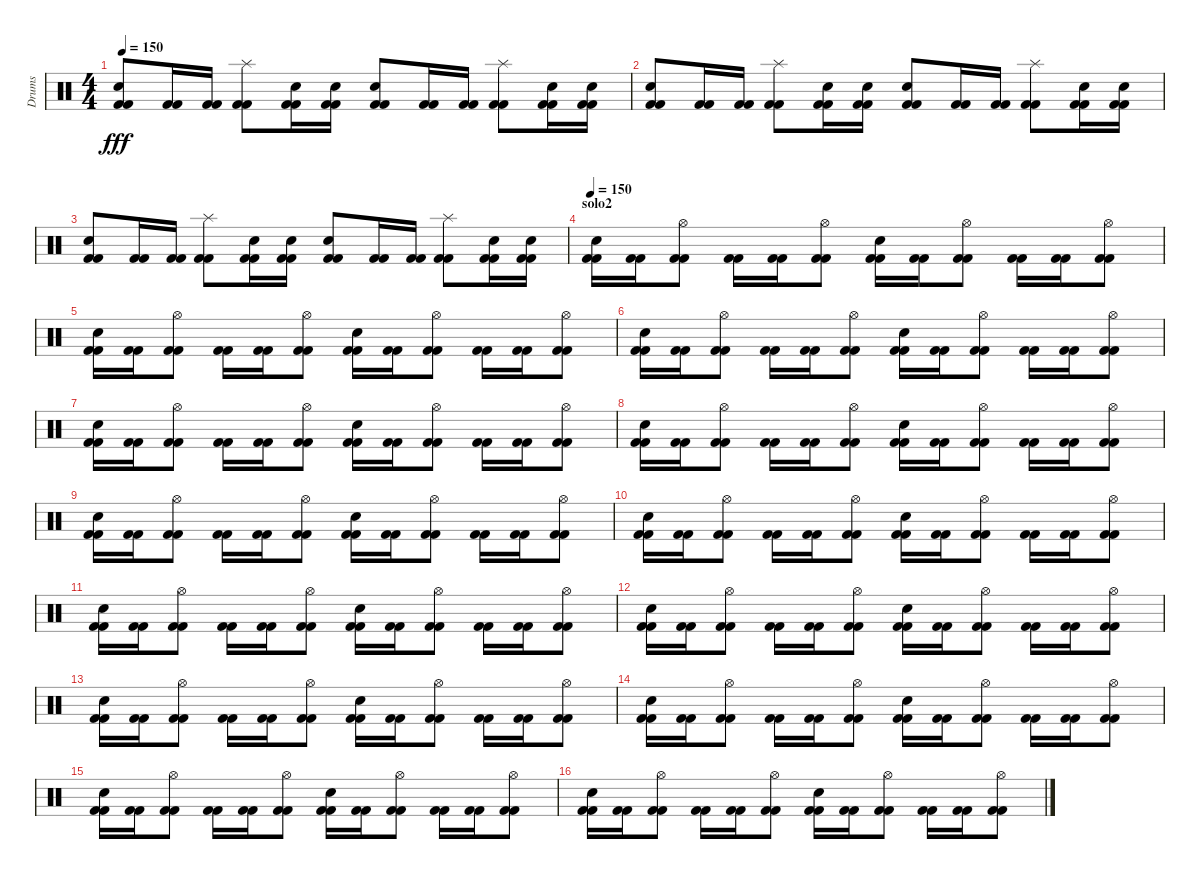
\track ("Drums" "Drums") {instrument percussion}
\staff {score}
\articulation defaults
\ts (4 4)
\tempo 150
\clef neutral
\ks c
("Electric Snare (hit)" "Kick (hit) 2" "Kick (hit) 2").8{dy fff} ("Kick (hit) 2" "Kick (hit) 2").16 ("Kick (hit) 2" "Kick (hit) 2").16 ("Splash (hit)" "Kick (hit) 2" "Kick (hit) 2").8 ("Electric Snare (hit)" "Kick (hit) 2" "Kick (hit) 2").16 ("Electric Snare (hit)" "Kick (hit) 2" "Kick (hit) 2").16 ("Electric Snare (hit)" "Kick (hit) 2" "Kick (hit) 2").8 ("Kick (hit) 2" "Kick (hit) 2").16 ("Kick (hit) 2" "Kick (hit) 2").16 ("Splash (hit)" "Kick (hit) 2" "Kick (hit) 2").8 ("Electric Snare (hit)" "Kick (hit) 2" "Kick (hit) 2").16 ("Electric Snare (hit)" "Kick (hit) 2" "Kick (hit) 2").16 |
("Electric Snare (hit)" "Kick (hit) 2" "Kick (hit) 2").8 ("Kick (hit) 2" "Kick (hit) 2").16 ("Kick (hit) 2" "Kick (hit) 2").16 ("Splash (hit)" "Kick (hit) 2" "Kick (hit) 2").8 ("Electric Snare (hit)" "Kick (hit) 2" "Kick (hit) 2").16 ("Electric Snare (hit)" "Kick (hit) 2" "Kick (hit) 2").16 ("Electric Snare (hit)" "Kick (hit) 2" "Kick (hit) 2").8 ("Kick (hit) 2" "Kick (hit) 2").16 ("Kick (hit) 2" "Kick (hit) 2").16 ("Splash (hit)" "Kick (hit) 2" "Kick (hit) 2").8 ("Electric Snare (hit)" "Kick (hit) 2" "Kick (hit) 2").16 ("Electric Snare (hit)" "Kick (hit) 2" "Kick (hit) 2").16 |
("Electric Snare (hit)" "Kick (hit) 2" "Kick (hit) 2").8 ("Kick (hit) 2" "Kick (hit) 2").16 ("Kick (hit) 2" "Kick (hit) 2").16 ("Splash (hit)" "Kick (hit) 2" "Kick (hit) 2").8 ("Electric Snare (hit)" "Kick (hit) 2" "Kick (hit) 2").16 ("Electric Snare (hit)" "Kick (hit) 2" "Kick (hit) 2").16 ("Electric Snare (hit)" "Kick (hit) 2" "Kick (hit) 2").8 ("Kick (hit) 2" "Kick (hit) 2").16 ("Kick (hit) 2" "Kick (hit) 2").16 ("Splash (hit)" "Kick (hit) 2" "Kick (hit) 2").8 ("Electric Snare (hit)" "Kick (hit) 2" "Kick (hit) 2").16 ("Electric Snare (hit)" "Kick (hit) 2" "Kick (hit) 2").16 |
\section ("" "solo2")
\tempo 150
("Electric Snare (hit)" "Kick (hit) 2" "Kick (hit) 2").16 ("Kick (hit) 2" "Kick (hit) 2").16 ("Hi-Hat (open)" "Kick (hit) 2" "Kick (hit) 2").8 ("Kick (hit) 2" "Kick (hit) 2").16 ("Kick (hit) 2" "Kick (hit) 2").16 ("Hi-Hat (open)" "Kick (hit) 2" "Kick (hit) 2").8 ("Electric Snare (hit)" "Kick (hit) 2" "Kick (hit) 2").16 ("Kick (hit) 2" "Kick (hit) 2").16 ("Hi-Hat (open)" "Kick (hit) 2" "Kick (hit) 2").8 ("Kick (hit) 2" "Kick (hit) 2").16 ("Kick (hit) 2" "Kick (hit) 2").16 ("Hi-Hat (open)" "Kick (hit) 2" "Kick (hit) 2").8 |
("Electric Snare (hit)" "Kick (hit) 2" "Kick (hit) 2").16 ("Kick (hit) 2" "Kick (hit) 2").16 ("Hi-Hat (open)" "Kick (hit) 2" "Kick (hit) 2").8 ("Kick (hit) 2" "Kick (hit) 2").16 ("Kick (hit) 2" "Kick (hit) 2").16 ("Hi-Hat (open)" "Kick (hit) 2" "Kick (hit) 2").8 ("Electric Snare (hit)" "Kick (hit) 2" "Kick (hit) 2").16 ("Kick (hit) 2" "Kick (hit) 2").16 ("Hi-Hat (open)" "Kick (hit) 2" "Kick (hit) 2").8 ("Kick (hit) 2" "Kick (hit) 2").16 ("Kick (hit) 2" "Kick (hit) 2").16 ("Hi-Hat (open)" "Kick (hit) 2" "Kick (hit) 2").8 |
("Electric Snare (hit)" "Kick (hit) 2" "Kick (hit) 2").16 ("Kick (hit) 2" "Kick (hit) 2").16 ("Hi-Hat (open)" "Kick (hit) 2" "Kick (hit) 2").8 ("Kick (hit) 2" "Kick (hit) 2").16 ("Kick (hit) 2" "Kick (hit) 2").16 ("Hi-Hat (open)" "Kick (hit) 2" "Kick (hit) 2").8 ("Electric Snare (hit)" "Kick (hit) 2" "Kick (hit) 2").16 ("Kick (hit) 2" "Kick (hit) 2").16 ("Hi-Hat (open)" "Kick (hit) 2" "Kick (hit) 2").8 ("Kick (hit) 2" "Kick (hit) 2").16 ("Kick (hit) 2" "Kick (hit) 2").16 ("Hi-Hat (open)" "Kick (hit) 2" "Kick (hit) 2").8 |
("Electric Snare (hit)" "Kick (hit) 2" "Kick (hit) 2").16 ("Kick (hit) 2" "Kick (hit) 2").16 ("Hi-Hat (open)" "Kick (hit) 2" "Kick (hit) 2").8 ("Kick (hit) 2" "Kick (hit) 2").16 ("Kick (hit) 2" "Kick (hit) 2").16 ("Hi-Hat (open)" "Kick (hit) 2" "Kick (hit) 2").8 ("Electric Snare (hit)" "Kick (hit) 2" "Kick (hit) 2").16 ("Kick (hit) 2" "Kick (hit) 2").16 ("Hi-Hat (open)" "Kick (hit) 2" "Kick (hit) 2").8 ("Kick (hit) 2" "Kick (hit) 2").16 ("Kick (hit) 2" "Kick (hit) 2").16 ("Hi-Hat (open)" "Kick (hit) 2" "Kick (hit) 2").8 |
("Electric Snare (hit)" "Kick (hit) 2" "Kick (hit) 2").16 ("Kick (hit) 2" "Kick (hit) 2").16 ("Hi-Hat (open)" "Kick (hit) 2" "Kick (hit) 2").8 ("Kick (hit) 2" "Kick (hit) 2").16 ("Kick (hit) 2" "Kick (hit) 2").16 ("Hi-Hat (open)" "Kick (hit) 2" "Kick (hit) 2").8 ("Electric Snare (hit)" "Kick (hit) 2" "Kick (hit) 2").16 ("Kick (hit) 2" "Kick (hit) 2").16 ("Hi-Hat (open)" "Kick (hit) 2" "Kick (hit) 2").8 ("Kick (hit) 2" "Kick (hit) 2").16 ("Kick (hit) 2" "Kick (hit) 2").16 ("Hi-Hat (open)" "Kick (hit) 2" "Kick (hit) 2").8 |
("Electric Snare (hit)" "Kick (hit) 2" "Kick (hit) 2").16 ("Kick (hit) 2" "Kick (hit) 2").16 ("Hi-Hat (open)" "Kick (hit) 2" "Kick (hit) 2").8 ("Kick (hit) 2" "Kick (hit) 2").16 ("Kick (hit) 2" "Kick (hit) 2").16 ("Hi-Hat (open)" "Kick (hit) 2" "Kick (hit) 2").8 ("Electric Snare (hit)" "Kick (hit) 2" "Kick (hit) 2").16 ("Kick (hit) 2" "Kick (hit) 2").16 ("Hi-Hat (open)" "Kick (hit) 2" "Kick (hit) 2").8 ("Kick (hit) 2" "Kick (hit) 2").16 ("Kick (hit) 2" "Kick (hit) 2").16 ("Hi-Hat (open)" "Kick (hit) 2" "Kick (hit) 2").8 |
("Electric Snare (hit)" "Kick (hit) 2" "Kick (hit) 2").16 ("Kick (hit) 2" "Kick (hit) 2").16 ("Hi-Hat (open)" "Kick (hit) 2" "Kick (hit) 2").8 ("Kick (hit) 2" "Kick (hit) 2").16 ("Kick (hit) 2" "Kick (hit) 2").16 ("Hi-Hat (open)" "Kick (hit) 2" "Kick (hit) 2").8 ("Electric Snare (hit)" "Kick (hit) 2" "Kick (hit) 2").16 ("Kick (hit) 2" "Kick (hit) 2").16 ("Hi-Hat (open)" "Kick (hit) 2" "Kick (hit) 2").8 ("Kick (hit) 2" "Kick (hit) 2").16 ("Kick (hit) 2" "Kick (hit) 2").16 ("Hi-Hat (open)" "Kick (hit) 2" "Kick (hit) 2").8 |
("Electric Snare (hit)" "Kick (hit) 2" "Kick (hit) 2").16 ("Kick (hit) 2" "Kick (hit) 2").16 ("Hi-Hat (open)" "Kick (hit) 2" "Kick (hit) 2").8 ("Kick (hit) 2" "Kick (hit) 2").16 ("Kick (hit) 2" "Kick (hit) 2").16 ("Hi-Hat (open)" "Kick (hit) 2" "Kick (hit) 2").8 ("Electric Snare (hit)" "Kick (hit) 2" "Kick (hit) 2").16 ("Kick (hit) 2" "Kick (hit) 2").16 ("Hi-Hat (open)" "Kick (hit) 2" "Kick (hit) 2").8 ("Kick (hit) 2" "Kick (hit) 2").16 ("Kick (hit) 2" "Kick (hit) 2").16 ("Hi-Hat (open)" "Kick (hit) 2" "Kick (hit) 2").8 |
("Electric Snare (hit)" "Kick (hit) 2" "Kick (hit) 2").16 ("Kick (hit) 2" "Kick (hit) 2").16 ("Hi-Hat (open)" "Kick (hit) 2" "Kick (hit) 2").8 ("Kick (hit) 2" "Kick (hit) 2").16 ("Kick (hit) 2" "Kick (hit) 2").16 ("Hi-Hat (open)" "Kick (hit) 2" "Kick (hit) 2").8 ("Electric Snare (hit)" "Kick (hit) 2" "Kick (hit) 2").16 ("Kick (hit) 2" "Kick (hit) 2").16 ("Hi-Hat (open)" "Kick (hit) 2" "Kick (hit) 2").8 ("Kick (hit) 2" "Kick (hit) 2").16 ("Kick (hit) 2" "Kick (hit) 2").16 ("Hi-Hat (open)" "Kick (hit) 2" "Kick (hit) 2").8 |
("Electric Snare (hit)" "Kick (hit) 2" "Kick (hit) 2").16 ("Kick (hit) 2" "Kick (hit) 2").16 ("Hi-Hat (open)" "Kick (hit) 2" "Kick (hit) 2").8 ("Kick (hit) 2" "Kick (hit) 2").16 ("Kick (hit) 2" "Kick (hit) 2").16 ("Hi-Hat (open)" "Kick (hit) 2" "Kick (hit) 2").8 ("Electric Snare (hit)" "Kick (hit) 2" "Kick (hit) 2").16 ("Kick (hit) 2" "Kick (hit) 2").16 ("Hi-Hat (open)" "Kick (hit) 2" "Kick (hit) 2").8 ("Kick (hit) 2" "Kick (hit) 2").16 ("Kick (hit) 2" "Kick (hit) 2").16 ("Hi-Hat (open)" "Kick (hit) 2" "Kick (hit) 2").8 |
("Electric Snare (hit)" "Kick (hit) 2" "Kick (hit) 2").16 ("Kick (hit) 2" "Kick (hit) 2").16 ("Hi-Hat (open)" "Kick (hit) 2" "Kick (hit) 2").8 ("Kick (hit) 2" "Kick (hit) 2").16 ("Kick (hit) 2" "Kick (hit) 2").16 ("Hi-Hat (open)" "Kick (hit) 2" "Kick (hit) 2").8 ("Electric Snare (hit)" "Kick (hit) 2" "Kick (hit) 2").16 ("Kick (hit) 2" "Kick (hit) 2").16 ("Hi-Hat (open)" "Kick (hit) 2" "Kick (hit) 2").8 ("Kick (hit) 2" "Kick (hit) 2").16 ("Kick (hit) 2" "Kick (hit) 2").16 ("Hi-Hat (open)" "Kick (hit) 2" "Kick (hit) 2").8 |
("Electric Snare (hit)" "Kick (hit) 2" "Kick (hit) 2").16 ("Kick (hit) 2" "Kick (hit) 2").16 ("Hi-Hat (open)" "Kick (hit) 2" "Kick (hit) 2").8 ("Kick (hit) 2" "Kick (hit) 2").16 ("Kick (hit) 2" "Kick (hit) 2").16 ("Hi-Hat (open)" "Kick (hit) 2" "Kick (hit) 2").8 ("Electric Snare (hit)" "Kick (hit) 2" "Kick (hit) 2").16 ("Kick (hit) 2" "Kick (hit) 2").16 ("Hi-Hat (open)" "Kick (hit) 2" "Kick (hit) 2").8 ("Kick (hit) 2" "Kick (hit) 2").16 ("Kick (hit) 2" "Kick (hit) 2").16 ("Hi-Hat (open)" "Kick (hit) 2" "Kick (hit) 2").8 |
("Electric Snare (hit)" "Kick (hit) 2" "Kick (hit) 2").16 ("Kick (hit) 2" "Kick (hit) 2").16 ("Hi-Hat (open)" "Kick (hit) 2" "Kick (hit) 2").8 ("Kick (hit) 2" "Kick (hit) 2").16 ("Kick (hit) 2" "Kick (hit) 2").16 ("Hi-Hat (open)" "Kick (hit) 2" "Kick (hit) 2").8 ("Electric Snare (hit)" "Kick (hit) 2" "Kick (hit) 2").16 ("Kick (hit) 2" "Kick (hit) 2").16 ("Hi-Hat (open)" "Kick (hit) 2" "Kick (hit) 2").8 ("Kick (hit) 2" "Kick (hit) 2").16 ("Kick (hit) 2" "Kick (hit) 2").16 ("Hi-Hat (open)" "Kick (hit) 2" "Kick (hit) 2").8
